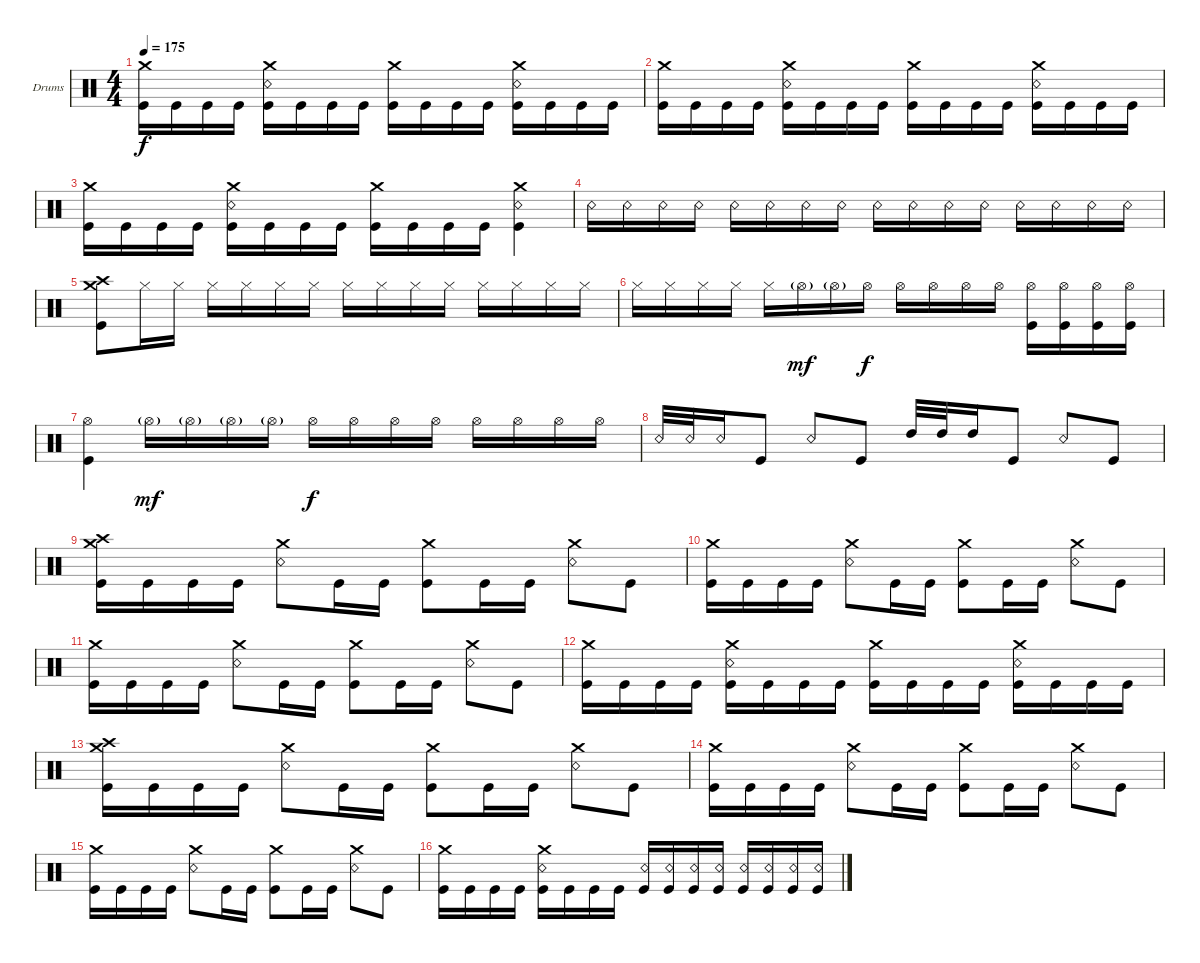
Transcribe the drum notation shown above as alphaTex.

\bracketExtendMode groupsimilarinstruments
\firstSystemTrackNameOrientation horizontal
\otherSystemsTrackNameOrientation horizontal
\track ("Drumkit" "Drums") {instrument percussion}
\staff {score}
\articulation defaults
\ts (4 4)
\tempo 175
\clef neutral
\ks c
("Crash medium (hit)" "Kick (hit)").16{dy f} "Kick (hit)".16 "Kick (hit)".16 "Kick (hit)".16 ("Crash medium (hit)" "Snare (rim shot)" "Kick (hit)").16 "Kick (hit)".16 "Kick (hit)".16 "Kick (hit)".16 ("Crash medium (hit)" "Kick (hit)").16 "Kick (hit)".16 "Kick (hit)".16 "Kick (hit)".16 ("Crash medium (hit)" "Snare (rim shot)" "Kick (hit)").16 "Kick (hit)".16 "Kick (hit)".16 "Kick (hit)".16 |
("Crash medium (hit)" "Kick (hit)").16 "Kick (hit)".16 "Kick (hit)".16 "Kick (hit)".16 ("Crash medium (hit)" "Snare (rim shot)" "Kick (hit)").16 "Kick (hit)".16 "Kick (hit)".16 "Kick (hit)".16 ("Crash medium (hit)" "Kick (hit)").16 "Kick (hit)".16 "Kick (hit)".16 "Kick (hit)".16 ("Crash medium (hit)" "Snare (rim shot)" "Kick (hit)").16 "Kick (hit)".16 "Kick (hit)".16 "Kick (hit)".16 |
("Crash medium (hit)" "Kick (hit)").16 "Kick (hit)".16 "Kick (hit)".16 "Kick (hit)".16 ("Crash medium (hit)" "Snare (rim shot)" "Kick (hit)").16 "Kick (hit)".16 "Kick (hit)".16 "Kick (hit)".16 ("Crash medium (hit)" "Kick (hit)").16 "Kick (hit)".16 "Kick (hit)".16 "Kick (hit)".16 ("Crash medium (hit)" "Snare (rim shot)" "Kick (hit)").4 |
"Snare (rim shot)".16 "Snare (rim shot)".16 "Snare (rim shot)".16 "Snare (rim shot)".16 "Snare (rim shot)".16 "Snare (rim shot)".16 "Snare (rim shot)".16 "Snare (rim shot)".16 "Snare (rim shot)".16 "Snare (rim shot)".16 "Snare (rim shot)".16 "Snare (rim shot)".16 "Snare (rim shot)".16 "Snare (rim shot)".16 "Snare (rim shot)".16 "Snare (rim shot)".16 |
("Crash high (hit)" "Crash medium (hit)" "Kick (hit)").8 "Hi-Hat (closed)".16 "Hi-Hat (closed)".16 "Hi-Hat (closed)".16 "Hi-Hat (closed)".16 "Hi-Hat (closed)".16 "Hi-Hat (closed)".16 "Hi-Hat (closed)".16 "Hi-Hat (closed)".16 "Hi-Hat (closed)".16 "Hi-Hat (closed)".16 "Hi-Hat (closed)".16 "Hi-Hat (closed)".16 "Hi-Hat (closed)".16 "Hi-Hat (closed)".16 |
"Hi-Hat (closed)".16 "Hi-Hat (closed)".16 "Hi-Hat (closed)".16 "Hi-Hat (closed)".16 "Hi-Hat (closed)".16 "Hi-Hat (open)"{g}.16{dy mf} "Hi-Hat (open)"{g}.16 "Hi-Hat (open)".16{dy f} "Hi-Hat (open)".16 "Hi-Hat (open)".16 "Hi-Hat (open)".16 "Hi-Hat (open)".16 ("Hi-Hat (open)" "Kick (hit)").16 ("Hi-Hat (open)" "Kick (hit)").16 ("Hi-Hat (open)" "Kick (hit)").16 ("Hi-Hat (open)" "Kick (hit)").16 |
("Hi-Hat (open)" "Kick (hit)").4 "Hi-Hat (open)"{g}.16{dy mf} "Hi-Hat (open)"{g}.16 "Hi-Hat (open)"{g}.16 "Hi-Hat (open)"{g}.16 "Hi-Hat (open)".16{dy f} "Hi-Hat (open)".16 "Hi-Hat (open)".16 "Hi-Hat (open)".16 "Hi-Hat (open)".16 "Hi-Hat (open)".16 "Hi-Hat (open)".16 "Hi-Hat (open)".16 |
"Snare (rim shot)".32 "Snare (rim shot)".32 "Snare (rim shot)".16 "Kick (hit)".8 "Snare (rim shot)".8 "Kick (hit)".8 "High Tom (hit)".32 "High Tom (hit)".32 "High Tom (hit)".16 "Kick (hit)".8 "Snare (rim shot)".8 "Kick (hit)".8 |
("Crash high (hit)" "Crash medium (hit)" "Kick (hit)").16 "Kick (hit)".16 "Kick (hit)".16 "Kick (hit)".16 ("Crash medium (hit)" "Snare (rim shot)").8 "Kick (hit)".16 "Kick (hit)".16 ("Crash medium (hit)" "Kick (hit)").8 "Kick (hit)".16 "Kick (hit)".16 ("Crash medium (hit)" "Snare (rim shot)").8 "Kick (hit)".8 |
("Crash medium (hit)" "Kick (hit)").16 "Kick (hit)".16 "Kick (hit)".16 "Kick (hit)".16 ("Crash medium (hit)" "Snare (rim shot)").8 "Kick (hit)".16 "Kick (hit)".16 ("Crash medium (hit)" "Kick (hit)").8 "Kick (hit)".16 "Kick (hit)".16 ("Crash medium (hit)" "Snare (rim shot)").8 "Kick (hit)".8 |
("Crash medium (hit)" "Kick (hit)").16 "Kick (hit)".16 "Kick (hit)".16 "Kick (hit)".16 ("Crash medium (hit)" "Snare (rim shot)").8 "Kick (hit)".16 "Kick (hit)".16 ("Crash medium (hit)" "Kick (hit)").8 "Kick (hit)".16 "Kick (hit)".16 ("Crash medium (hit)" "Snare (rim shot)").8 "Kick (hit)".8 |
("Crash medium (hit)" "Kick (hit)").16 "Kick (hit)".16 "Kick (hit)".16 "Kick (hit)".16 ("Crash medium (hit)" "Snare (rim shot)" "Kick (hit)").16 "Kick (hit)".16 "Kick (hit)".16 "Kick (hit)".16 ("Crash medium (hit)" "Kick (hit)").16 "Kick (hit)".16 "Kick (hit)".16 "Kick (hit)".16 ("Crash medium (hit)" "Snare (rim shot)" "Kick (hit)").16 "Kick (hit)".16 "Kick (hit)".16 "Kick (hit)".16 |
("Crash high (hit)" "Crash medium (hit)" "Kick (hit)").16 "Kick (hit)".16 "Kick (hit)".16 "Kick (hit)".16 ("Crash medium (hit)" "Snare (rim shot)").8 "Kick (hit)".16 "Kick (hit)".16 ("Crash medium (hit)" "Kick (hit)").8 "Kick (hit)".16 "Kick (hit)".16 ("Crash medium (hit)" "Snare (rim shot)").8 "Kick (hit)".8 |
("Crash medium (hit)" "Kick (hit)").16 "Kick (hit)".16 "Kick (hit)".16 "Kick (hit)".16 ("Crash medium (hit)" "Snare (rim shot)").8 "Kick (hit)".16 "Kick (hit)".16 ("Crash medium (hit)" "Kick (hit)").8 "Kick (hit)".16 "Kick (hit)".16 ("Crash medium (hit)" "Snare (rim shot)").8 "Kick (hit)".8 |
("Crash medium (hit)" "Kick (hit)").16 "Kick (hit)".16 "Kick (hit)".16 "Kick (hit)".16 ("Crash medium (hit)" "Snare (rim shot)").8 "Kick (hit)".16 "Kick (hit)".16 ("Crash medium (hit)" "Kick (hit)").8 "Kick (hit)".16 "Kick (hit)".16 ("Crash medium (hit)" "Snare (rim shot)").8 "Kick (hit)".8 |
("Crash medium (hit)" "Kick (hit)").16 "Kick (hit)".16 "Kick (hit)".16 "Kick (hit)".16 ("Crash medium (hit)" "Snare (rim shot)" "Kick (hit)").16 "Kick (hit)".16 "Kick (hit)".16 "Kick (hit)".16 ("Snare (rim shot)" "Kick (hit)").16 ("Snare (rim shot)" "Kick (hit)").16 ("Snare (rim shot)" "Kick (hit)").16 ("Snare (rim shot)" "Kick (hit)").16 ("Snare (rim shot)" "Kick (hit)").16 ("Snare (rim shot)" "Kick (hit)").16 ("Snare (rim shot)" "Kick (hit)").16 ("Snare (rim shot)" "Kick (hit)").16
